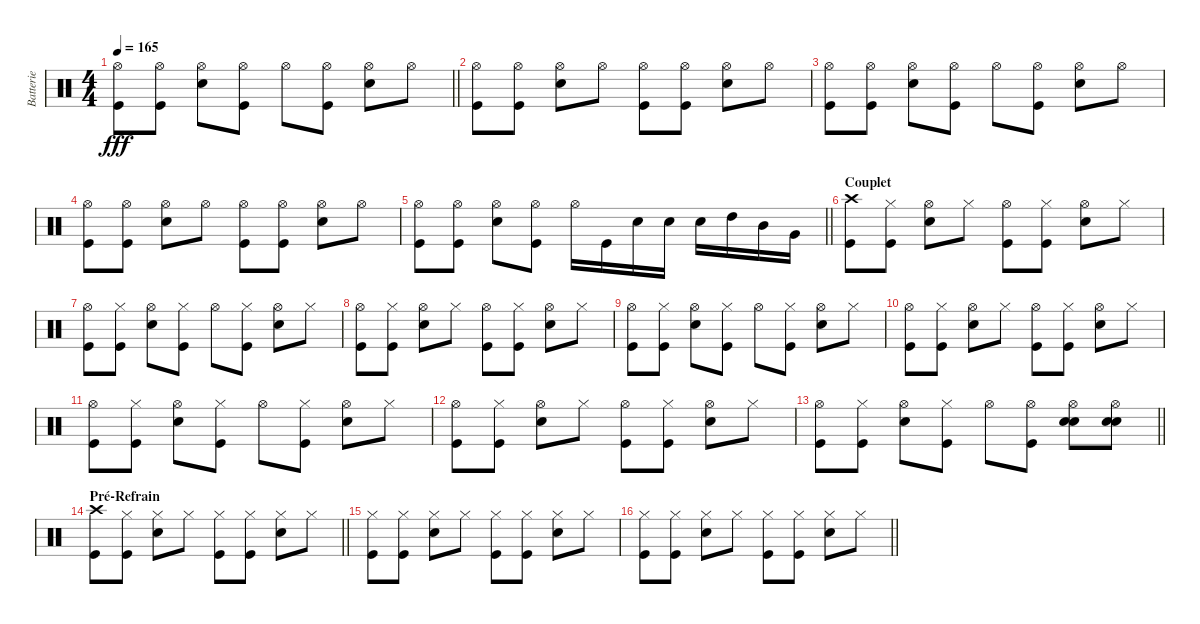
\track ("Batterie" "Batterie") {instrument percussion}
\staff {score}
\articulation defaults
\ts (4 4)
\tempo 165
\clef neutral
\barLineRight lightlight
\ks c
("Hi-Hat (open)" "Kick (hit)").8{dy fff} ("Hi-Hat (open)" "Kick (hit)").8 ("Hi-Hat (open)" "Electric Snare (hit)").8 ("Hi-Hat (open)" "Kick (hit)").8 "Hi-Hat (open)".8 ("Hi-Hat (open)" "Kick (hit)").8 ("Hi-Hat (open)" "Electric Snare (hit)").8 "Hi-Hat (open)".8 |
("Hi-Hat (open)" "Kick (hit)").8 ("Hi-Hat (open)" "Kick (hit)").8 ("Hi-Hat (open)" "Electric Snare (hit)").8 "Hi-Hat (open)".8 ("Hi-Hat (open)" "Kick (hit)").8 ("Hi-Hat (open)" "Kick (hit)").8 ("Hi-Hat (open)" "Electric Snare (hit)").8 "Hi-Hat (open)".8 |
("Hi-Hat (open)" "Kick (hit)").8 ("Hi-Hat (open)" "Kick (hit)").8 ("Hi-Hat (open)" "Electric Snare (hit)").8 ("Hi-Hat (open)" "Kick (hit)").8 "Hi-Hat (open)".8 ("Hi-Hat (open)" "Kick (hit)").8 ("Hi-Hat (open)" "Electric Snare (hit)").8 "Hi-Hat (open)".8 |
("Hi-Hat (open)" "Kick (hit)").8 ("Hi-Hat (open)" "Kick (hit)").8 ("Hi-Hat (open)" "Electric Snare (hit)").8 "Hi-Hat (open)".8 ("Hi-Hat (open)" "Kick (hit)").8 ("Hi-Hat (open)" "Kick (hit)").8 ("Hi-Hat (open)" "Electric Snare (hit)").8 "Hi-Hat (open)".8 |
\barLineRight lightlight
("Hi-Hat (open)" "Kick (hit)").8 ("Hi-Hat (open)" "Kick (hit)").8 ("Hi-Hat (open)" "Electric Snare (hit)").8 ("Hi-Hat (open)" "Kick (hit)").8 "Hi-Hat (open)".16 "Kick (hit)".16 "Electric Snare (hit)".16 "Electric Snare (hit)".16 "Electric Snare (hit)".16 "High Tom (hit)".16 "Mid Tom (hit)".16 "Very Low Tom (hit)".16 |
\section ("" "Couplet")
("Crash high (hit)" "Kick (hit)").8 ("Hi-Hat (closed)" "Kick (hit)").8 ("Hi-Hat (open)" "Electric Snare (hit)").8 "Hi-Hat (closed)".8 ("Hi-Hat (open)" "Kick (hit)").8 ("Hi-Hat (closed)" "Kick (hit)").8 ("Hi-Hat (open)" "Electric Snare (hit)").8 "Hi-Hat (closed)".8 |
("Hi-Hat (open)" "Kick (hit)").8 ("Hi-Hat (closed)" "Kick (hit)").8 ("Hi-Hat (open)" "Electric Snare (hit)").8 ("Hi-Hat (closed)" "Kick (hit)").8 "Hi-Hat (open)".8 ("Hi-Hat (closed)" "Kick (hit)").8 ("Hi-Hat (open)" "Electric Snare (hit)").8 "Hi-Hat (closed)".8 |
("Hi-Hat (open)" "Kick (hit)").8 ("Hi-Hat (closed)" "Kick (hit)").8 ("Hi-Hat (open)" "Electric Snare (hit)").8 "Hi-Hat (closed)".8 ("Hi-Hat (open)" "Kick (hit)").8 ("Hi-Hat (closed)" "Kick (hit)").8 ("Hi-Hat (open)" "Electric Snare (hit)").8 "Hi-Hat (closed)".8 |
("Hi-Hat (open)" "Kick (hit)").8 ("Hi-Hat (closed)" "Kick (hit)").8 ("Hi-Hat (open)" "Electric Snare (hit)").8 ("Hi-Hat (closed)" "Kick (hit)").8 "Hi-Hat (open)".8 ("Hi-Hat (closed)" "Kick (hit)").8 ("Hi-Hat (open)" "Electric Snare (hit)").8 "Hi-Hat (closed)".8 |
("Hi-Hat (open)" "Kick (hit)").8 ("Hi-Hat (closed)" "Kick (hit)").8 ("Hi-Hat (open)" "Electric Snare (hit)").8 "Hi-Hat (closed)".8 ("Hi-Hat (open)" "Kick (hit)").8 ("Hi-Hat (closed)" "Kick (hit)").8 ("Hi-Hat (open)" "Electric Snare (hit)").8 "Hi-Hat (closed)".8 |
("Hi-Hat (open)" "Kick (hit)").8 ("Hi-Hat (closed)" "Kick (hit)").8 ("Hi-Hat (open)" "Electric Snare (hit)").8 ("Hi-Hat (closed)" "Kick (hit)").8 "Hi-Hat (open)".8 ("Hi-Hat (closed)" "Kick (hit)").8 ("Hi-Hat (open)" "Electric Snare (hit)").8 "Hi-Hat (closed)".8 |
("Hi-Hat (open)" "Kick (hit)").8 ("Hi-Hat (closed)" "Kick (hit)").8 ("Hi-Hat (open)" "Electric Snare (hit)").8 "Hi-Hat (closed)".8 ("Hi-Hat (open)" "Kick (hit)").8 ("Hi-Hat (closed)" "Kick (hit)").8 ("Hi-Hat (open)" "Electric Snare (hit)").8 "Hi-Hat (closed)".8 |
\barLineRight lightlight
("Hi-Hat (open)" "Kick (hit)").8 ("Hi-Hat (closed)" "Kick (hit)").8 ("Hi-Hat (open)" "Electric Snare (hit)").8 ("Hi-Hat (closed)" "Kick (hit)").8 "Hi-Hat (open)".8 ("Hi-Hat (open)" "Kick (hit)").8 ("Hi-Hat (open)" "Snare (hit) 2" "Electric Snare (hit)").8 ("Hi-Hat (open)" "Snare (hit) 2" "Electric Snare (hit)").8 |
\section ("" "Pré-Refrain")
\barLineRight lightlight
("Crash high (hit)" "Kick (hit)").8 ("Hi-Hat (closed)" "Kick (hit)").8 ("Hi-Hat (closed)" "Electric Snare (hit)").8 "Hi-Hat (closed)".8 ("Hi-Hat (closed)" "Kick (hit)").8 ("Hi-Hat (closed)" "Kick (hit)").8 ("Hi-Hat (closed)" "Electric Snare (hit)").8 "Hi-Hat (closed)".8 |
("Hi-Hat (closed)" "Kick (hit)").8 ("Hi-Hat (closed)" "Kick (hit)").8 ("Hi-Hat (closed)" "Electric Snare (hit)").8 "Hi-Hat (closed)".8 ("Hi-Hat (closed)" "Kick (hit)").8 ("Hi-Hat (closed)" "Kick (hit)").8 ("Hi-Hat (closed)" "Electric Snare (hit)").8 "Hi-Hat (closed)".8 |
\barLineRight lightlight
("Hi-Hat (closed)" "Kick (hit)").8 ("Hi-Hat (closed)" "Kick (hit)").8 ("Hi-Hat (closed)" "Electric Snare (hit)").8 "Hi-Hat (closed)".8 ("Hi-Hat (closed)" "Kick (hit)").8 ("Hi-Hat (closed)" "Kick (hit)").8 ("Hi-Hat (closed)" "Electric Snare (hit)").8 "Hi-Hat (closed)".8
